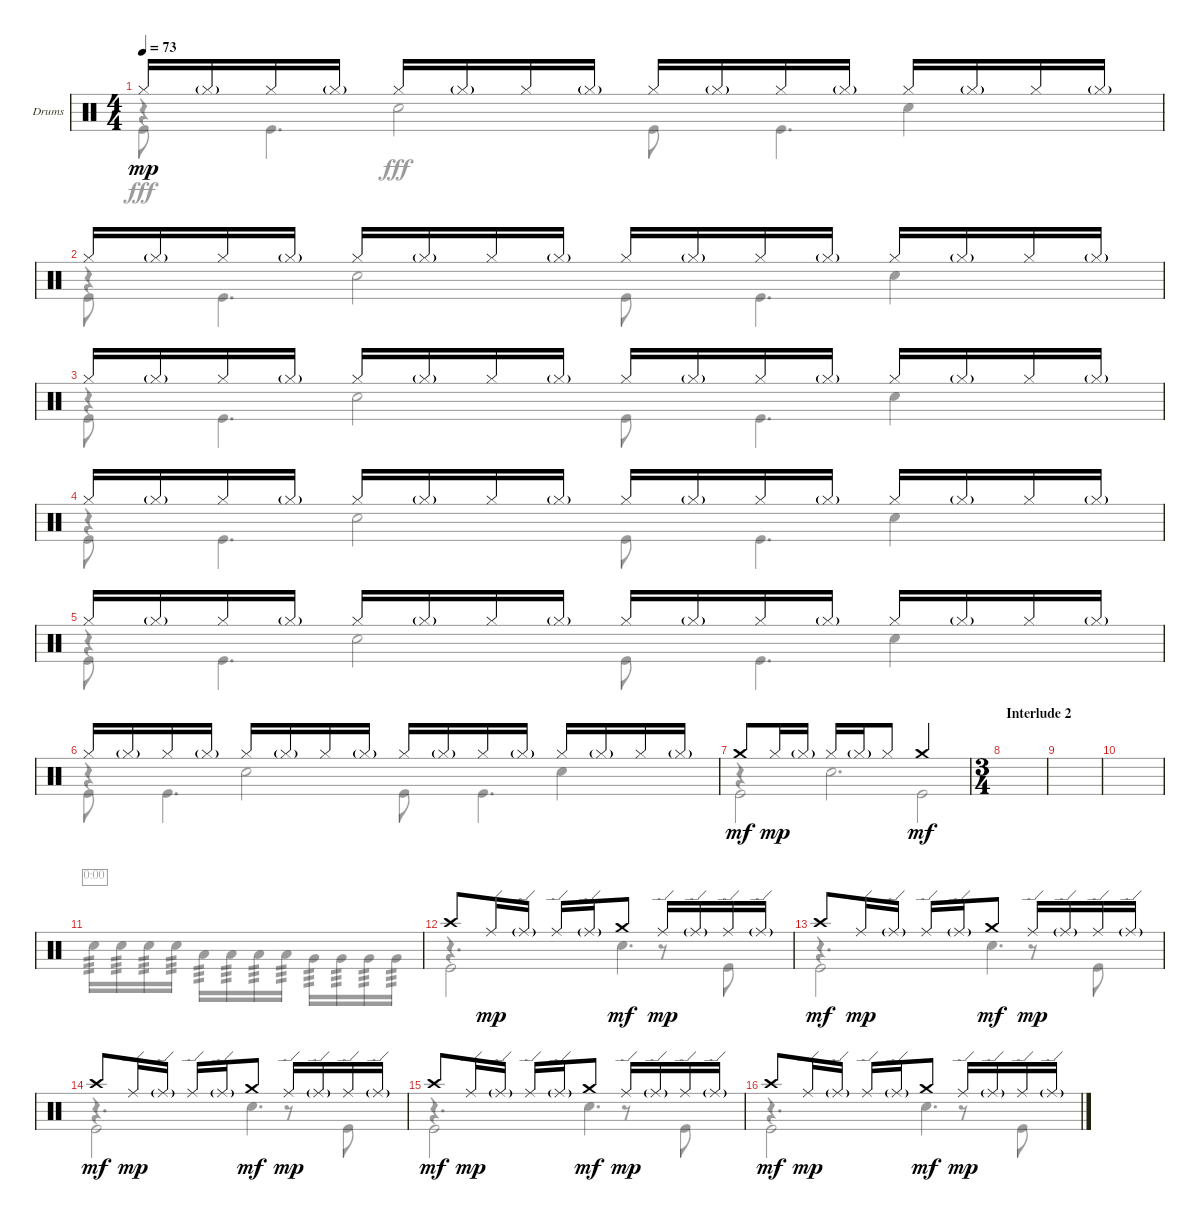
\defaultSystemsLayout 4
\bracketExtendMode groupsimilarinstruments
\firstSystemTrackNameOrientation horizontal
\otherSystemsTrackNameOrientation horizontal
\track ("Drumkit" "Drums") {instrument percussion}
\staff {score}
\articulation defaults
\voice
\ts (4 4)
\tempo 73
\clef neutral
\ks c "Hi-Hat (closed)".16{dy mp} "Hi-Hat (closed)"{g}.16 "Hi-Hat (closed)".16 "Hi-Hat (closed)"{g}.16 "Hi-Hat (closed)".16 "Hi-Hat (closed)"{g}.16 "Hi-Hat (closed)".16 "Hi-Hat (closed)"{g}.16 "Hi-Hat (closed)".16 "Hi-Hat (closed)"{g}.16 "Hi-Hat (closed)".16 "Hi-Hat (closed)"{g}.16 "Hi-Hat (closed)".16 "Hi-Hat (closed)"{g}.16 "Hi-Hat (closed)".16 "Hi-Hat (closed)"{g}.16
|
"Hi-Hat (closed)".16 "Hi-Hat (closed)"{g}.16 "Hi-Hat (closed)".16 "Hi-Hat (closed)"{g}.16 "Hi-Hat (closed)".16 "Hi-Hat (closed)"{g}.16 "Hi-Hat (closed)".16 "Hi-Hat (closed)"{g}.16 "Hi-Hat (closed)".16 "Hi-Hat (closed)"{g}.16 "Hi-Hat (closed)".16 "Hi-Hat (closed)"{g}.16 "Hi-Hat (closed)".16 "Hi-Hat (closed)"{g}.16 "Hi-Hat (closed)".16 "Hi-Hat (closed)"{g}.16 |
"Hi-Hat (closed)".16 "Hi-Hat (closed)"{g}.16 "Hi-Hat (closed)".16 "Hi-Hat (closed)"{g}.16 "Hi-Hat (closed)".16 "Hi-Hat (closed)"{g}.16 "Hi-Hat (closed)".16 "Hi-Hat (closed)"{g}.16 "Hi-Hat (closed)".16 "Hi-Hat (closed)"{g}.16 "Hi-Hat (closed)".16 "Hi-Hat (closed)"{g}.16 "Hi-Hat (closed)".16 "Hi-Hat (closed)"{g}.16 "Hi-Hat (closed)".16 "Hi-Hat (closed)"{g}.16 |
"Hi-Hat (closed)".16 "Hi-Hat (closed)"{g}.16 "Hi-Hat (closed)".16 "Hi-Hat (closed)"{g}.16 "Hi-Hat (closed)".16 "Hi-Hat (closed)"{g}.16 "Hi-Hat (closed)".16 "Hi-Hat (closed)"{g}.16 "Hi-Hat (closed)".16 "Hi-Hat (closed)"{g}.16 "Hi-Hat (closed)".16 "Hi-Hat (closed)"{g}.16 "Hi-Hat (closed)".16 "Hi-Hat (closed)"{g}.16 "Hi-Hat (closed)".16 "Hi-Hat (closed)"{g}.16 |
"Hi-Hat (closed)".16 "Hi-Hat (closed)"{g}.16 "Hi-Hat (closed)".16 "Hi-Hat (closed)"{g}.16 "Hi-Hat (closed)".16 "Hi-Hat (closed)"{g}.16 "Hi-Hat (closed)".16 "Hi-Hat (closed)"{g}.16 "Hi-Hat (closed)".16 "Hi-Hat (closed)"{g}.16 "Hi-Hat (closed)".16 "Hi-Hat (closed)"{g}.16 "Hi-Hat (closed)".16 "Hi-Hat (closed)"{g}.16 "Hi-Hat (closed)".16 "Hi-Hat (closed)"{g}.16 |
"Hi-Hat (closed)".16 "Hi-Hat (closed)"{g}.16 "Hi-Hat (closed)".16 "Hi-Hat (closed)"{g}.16 "Hi-Hat (closed)".16 "Hi-Hat (closed)"{g}.16 "Hi-Hat (closed)".16 "Hi-Hat (closed)"{g}.16 "Hi-Hat (closed)".16 "Hi-Hat (closed)"{g}.16 "Hi-Hat (closed)".16 "Hi-Hat (closed)"{g}.16 "Hi-Hat (closed)".16 "Hi-Hat (closed)"{g}.16 "Hi-Hat (closed)".16 "Hi-Hat (closed)"{g}.16 |
"Crash medium (hit)".8{dy mf} "Hi-Hat (closed)".16{dy mp} "Hi-Hat (closed)"{g}.16 "Hi-Hat (closed)".16 "Hi-Hat (closed)"{g}.16 "Hi-Hat (closed)".8 "Crash medium (hit)".2{dy mf} |
\ts (3 4)
\section ("" "Interlude 2")
|
|
|
|
"Crash high (hit)".8 "Ride (edge)".16{dy mp} "Ride (edge)"{g}.16 "Ride (edge)".16 "Ride (edge)"{g}.16 "Crash medium (hit)".8{dy mf} "Ride (edge)".16{dy mp} "Ride (edge)"{g}.16 "Ride (edge)".16 "Ride (edge)"{g}.16 |
"Crash high (hit)".8{dy mf} "Ride (edge)".16{dy mp} "Ride (edge)"{g}.16 "Ride (edge)".16 "Ride (edge)"{g}.16 "Crash medium (hit)".8{dy mf} "Ride (edge)".16{dy mp} "Ride (edge)"{g}.16 "Ride (edge)".16 "Ride (edge)"{g}.16 |
"Crash high (hit)".8{dy mf} "Ride (edge)".16{dy mp} "Ride (edge)"{g}.16 "Ride (edge)".16 "Ride (edge)"{g}.16 "Crash medium (hit)".8{dy mf} "Ride (edge)".16{dy mp} "Ride (edge)"{g}.16 "Ride (edge)".16 "Ride (edge)"{g}.16 |
"Crash high (hit)".8{dy mf} "Ride (edge)".16{dy mp} "Ride (edge)"{g}.16 "Ride (edge)".16 "Ride (edge)"{g}.16 "Crash medium (hit)".8{dy mf} "Ride (edge)".16{dy mp} "Ride (edge)"{g}.16 "Ride (edge)".16 "Ride (edge)"{g}.16 |
"Crash high (hit)".8{dy mf} "Ride (edge)".16{dy mp} "Ride (edge)"{g}.16 "Ride (edge)".16 "Ride (edge)"{g}.16 "Crash medium (hit)".8{dy mf} "Ride (edge)".16{dy mp} "Ride (edge)"{g}.16 "Ride (edge)".16 "Ride (edge)"{g}.16
\voice
\clef neutral
\ottava regular
\simile none
\ks c
r.4{dy fff} "Snare (hit) 2".2 "Snare (hit) 2".4 |
r.4 "Snare (hit) 2".2 "Snare (hit) 2".4 |
r.4 "Snare (hit) 2".2 "Snare (hit) 2".4 |
r.4 "Snare (hit) 2".2 "Snare (hit) 2".4 |
r.4 "Snare (hit) 2".2 "Snare (hit) 2".4 |
r.4 "Snare (hit) 2".2 "Snare (hit) 2".4 |
r.4 "Snare (hit) 2".2{d} |
|
|
|
"Snare (hit) 2".16{tp 3 timer} "Snare (hit) 2".16{tp 3} "Snare (hit) 2".16{tp 3} "Snare (hit) 2".16{tp 3} "Low Tom (hit)".16{tp 3} "Low Tom (hit)".16{tp 3} "Low Tom (hit)".16{tp 3} "Low Tom (hit)".16{tp 3} "Very Low Tom (hit)".16{tp 3} "Very Low Tom (hit)".16{tp 3} "Very Low Tom (hit)".16{tp 3} "Very Low Tom (hit)".16{tp 3} |
r.4{d} "Snare (hit) 2".4{d} |
r.4{d} "Snare (hit) 2".4{d} |
r.4{d} "Snare (hit) 2".4{d} |
r.4{d} "Snare (hit) 2".4{d} |
r.4{d} "Snare (hit) 2".4{d}
\voice
\clef neutral
\ottava regular
\simile none
\ks c "Kick (hit)".8{dy fff} "Kick (hit)".4{d} "Kick (hit)".8 "Kick (hit)".4{d}
|
"Kick (hit)".8 "Kick (hit)".4{d} "Kick (hit)".8 "Kick (hit)".4{d} |
"Kick (hit)".8 "Kick (hit)".4{d} "Kick (hit)".8 "Kick (hit)".4{d} |
"Kick (hit)".8 "Kick (hit)".4{d} "Kick (hit)".8 "Kick (hit)".4{d} |
"Kick (hit)".8 "Kick (hit)".4{d} "Kick (hit)".8 "Kick (hit)".4{d} |
"Kick (hit)".8 "Kick (hit)".4{d} "Kick (hit)".8 "Kick (hit)".4{d} |
"Kick (hit)".2 "Kick (hit)".2 |
|
|
|
|
"Kick (hit)".2 r.8 "Kick (hit)".8 |
"Kick (hit)".2 r.8 "Kick (hit)".8 |
"Kick (hit)".2 r.8 "Kick (hit)".8 |
"Kick (hit)".2 r.8 "Kick (hit)".8 |
"Kick (hit)".2 r.8 "Kick (hit)".8
